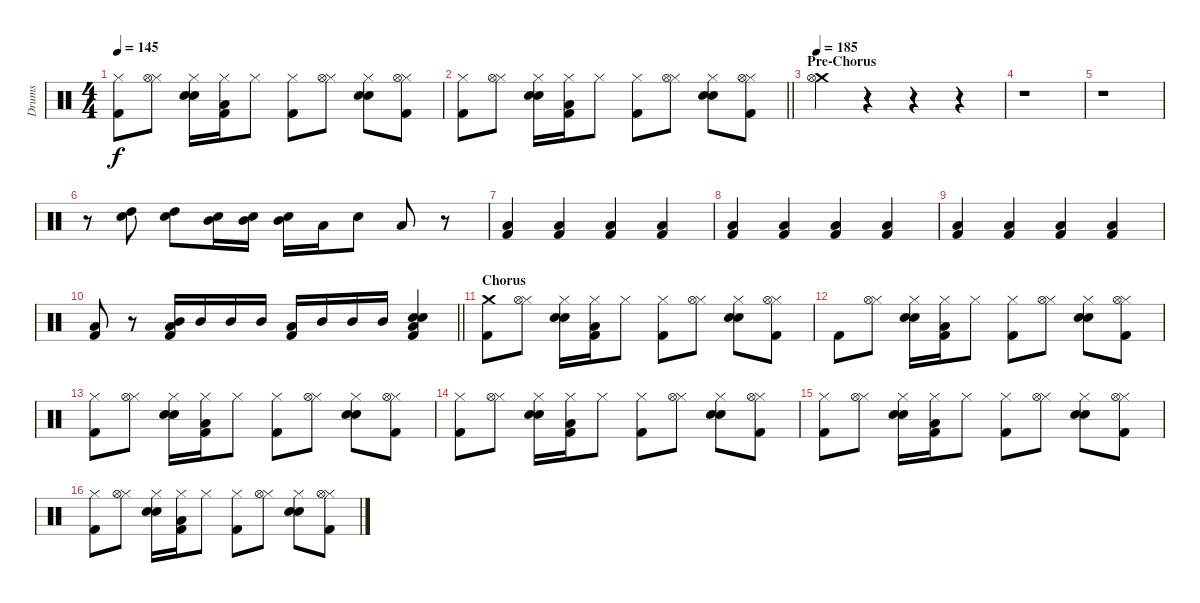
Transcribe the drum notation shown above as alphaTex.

\track ("Drums" "Drums") {instrument percussion}
\staff {score}
\articulation defaults
\ts (4 4)
\tempo 145
\clef neutral
\ks c
("Hi-Hat (closed)" "Kick (hit) 2").8{dy f} ("Hi-Hat (closed)" "Hi-Hat (open)").8 ("Hi-Hat (closed)" "Snare (hit) 2" "Electric Snare (hit)").16 ("Hi-Hat (closed)" "Low Floor Tom (hit)" "Kick (hit) 2").16 "Hi-Hat (closed)".8 ("Hi-Hat (closed)" "Kick (hit) 2").8 ("Hi-Hat (closed)" "Hi-Hat (open)").8 ("Hi-Hat (closed)" "Snare (hit) 2" "Electric Snare (hit)").8 ("Hi-Hat (closed)" "Hi-Hat (open)" "Kick (hit) 2").8 |
\barLineRight lightlight
("Hi-Hat (closed)" "Kick (hit) 2").8 ("Hi-Hat (closed)" "Hi-Hat (open)").8 ("Hi-Hat (closed)" "Snare (hit) 2" "Electric Snare (hit)").16 ("Hi-Hat (closed)" "Low Floor Tom (hit)" "Kick (hit) 2").16 "Hi-Hat (closed)".8 ("Hi-Hat (closed)" "Kick (hit) 2").8 ("Hi-Hat (closed)" "Hi-Hat (open)").8 ("Hi-Hat (closed)" "Snare (hit) 2" "Electric Snare (hit)").8 ("Hi-Hat (closed)" "Hi-Hat (open)" "Kick (hit) 2").8 |
\section ("" "Pre-Chorus")
\tempo 185
("Crash medium (hit)" "Hi-Hat (open)").4 r.4 r.4 r.4 |
r.1 |
r.1 |
r.8 ("Snare (hit) 2" "High Tom (hit)").8 ("Snare (hit) 2" "High Tom (hit)").8 ("Snare (hit) 2" "Mid Tom (hit)").16 ("Snare (hit) 2" "Mid Tom (hit)").16 ("Snare (hit) 2" "Mid Tom (hit)").16 "Low Tom (hit)".16 "Snare (hit) 2".8 "Low Floor Tom (hit)".8 r.8 |
("Low Floor Tom (hit)" "Kick (hit) 2").4 ("Low Floor Tom (hit)" "Kick (hit) 2").4 ("Low Floor Tom (hit)" "Kick (hit) 2").4 ("Low Floor Tom (hit)" "Kick (hit) 2").4 |
("Low Floor Tom (hit)" "Kick (hit) 2").4 ("Low Floor Tom (hit)" "Kick (hit) 2").4 ("Low Floor Tom (hit)" "Kick (hit) 2").4 ("Low Floor Tom (hit)" "Kick (hit) 2").4 |
("Low Floor Tom (hit)" "Kick (hit) 2").4 ("Low Floor Tom (hit)" "Kick (hit) 2").4 ("Low Floor Tom (hit)" "Kick (hit) 2").4 ("Low Floor Tom (hit)" "Kick (hit) 2").4 |
\barLineRight lightlight
("Low Floor Tom (hit)" "Kick (hit) 2").8 r.8 ("Mid Tom (hit)" "Low Floor Tom (hit)" "Kick (hit) 2").16 "Mid Tom (hit)".16 "Mid Tom (hit)".16 "Mid Tom (hit)".16 ("Low Floor Tom (hit)" "Kick (hit) 2").16 "Mid Tom (hit)".16 "Mid Tom (hit)".16 "Mid Tom (hit)".16 ("Snare (hit) 2" "Electric Snare (hit)" "Low Floor Tom (hit)" "Kick (hit) 2").4 |
\section ("" "Chorus")
("Crash medium (hit)" "Kick (hit) 2").8 ("Hi-Hat (closed)" "Hi-Hat (open)").8 ("Hi-Hat (closed)" "Snare (hit) 2" "Electric Snare (hit)").16 ("Hi-Hat (closed)" "Low Floor Tom (hit)" "Kick (hit) 2").16 "Hi-Hat (closed)".8 ("Hi-Hat (closed)" "Kick (hit) 2").8 ("Hi-Hat (closed)" "Hi-Hat (open)").8 ("Hi-Hat (closed)" "Snare (hit) 2" "Electric Snare (hit)").8 ("Hi-Hat (closed)" "Hi-Hat (open)" "Kick (hit) 2").8 |
"Kick (hit) 2".8 ("Hi-Hat (closed)" "Hi-Hat (open)").8 ("Hi-Hat (closed)" "Snare (hit) 2" "Electric Snare (hit)").16 ("Hi-Hat (closed)" "Low Floor Tom (hit)" "Kick (hit) 2").16 "Hi-Hat (closed)".8 ("Hi-Hat (closed)" "Kick (hit) 2").8 ("Hi-Hat (closed)" "Hi-Hat (open)").8 ("Hi-Hat (closed)" "Snare (hit) 2" "Electric Snare (hit)").8 ("Hi-Hat (closed)" "Hi-Hat (open)" "Kick (hit) 2").8 |
("Hi-Hat (closed)" "Kick (hit) 2").8 ("Hi-Hat (closed)" "Hi-Hat (open)").8 ("Hi-Hat (closed)" "Snare (hit) 2" "Electric Snare (hit)").16 ("Hi-Hat (closed)" "Low Floor Tom (hit)" "Kick (hit) 2").16 "Hi-Hat (closed)".8 ("Hi-Hat (closed)" "Kick (hit) 2").8 ("Hi-Hat (closed)" "Hi-Hat (open)").8 ("Hi-Hat (closed)" "Snare (hit) 2" "Electric Snare (hit)").8 ("Hi-Hat (closed)" "Hi-Hat (open)" "Kick (hit) 2").8 |
("Hi-Hat (closed)" "Kick (hit) 2").8 ("Hi-Hat (closed)" "Hi-Hat (open)").8 ("Hi-Hat (closed)" "Snare (hit) 2" "Electric Snare (hit)").16 ("Hi-Hat (closed)" "Low Floor Tom (hit)" "Kick (hit) 2").16 "Hi-Hat (closed)".8 ("Hi-Hat (closed)" "Kick (hit) 2").8 ("Hi-Hat (closed)" "Hi-Hat (open)").8 ("Hi-Hat (closed)" "Snare (hit) 2" "Electric Snare (hit)").8 ("Hi-Hat (closed)" "Hi-Hat (open)" "Kick (hit) 2").8 |
("Hi-Hat (closed)" "Kick (hit) 2").8 ("Hi-Hat (closed)" "Hi-Hat (open)").8 ("Hi-Hat (closed)" "Snare (hit) 2" "Electric Snare (hit)").16 ("Hi-Hat (closed)" "Low Floor Tom (hit)" "Kick (hit) 2").16 "Hi-Hat (closed)".8 ("Hi-Hat (closed)" "Kick (hit) 2").8 ("Hi-Hat (closed)" "Hi-Hat (open)").8 ("Hi-Hat (closed)" "Snare (hit) 2" "Electric Snare (hit)").8 ("Hi-Hat (closed)" "Hi-Hat (open)" "Kick (hit) 2").8 |
("Hi-Hat (closed)" "Kick (hit) 2").8 ("Hi-Hat (closed)" "Hi-Hat (open)").8 ("Hi-Hat (closed)" "Snare (hit) 2" "Electric Snare (hit)").16 ("Hi-Hat (closed)" "Low Floor Tom (hit)" "Kick (hit) 2").16 "Hi-Hat (closed)".8 ("Hi-Hat (closed)" "Kick (hit) 2").8 ("Hi-Hat (closed)" "Hi-Hat (open)").8 ("Hi-Hat (closed)" "Snare (hit) 2" "Electric Snare (hit)").8 ("Hi-Hat (closed)" "Hi-Hat (open)" "Kick (hit) 2").8
